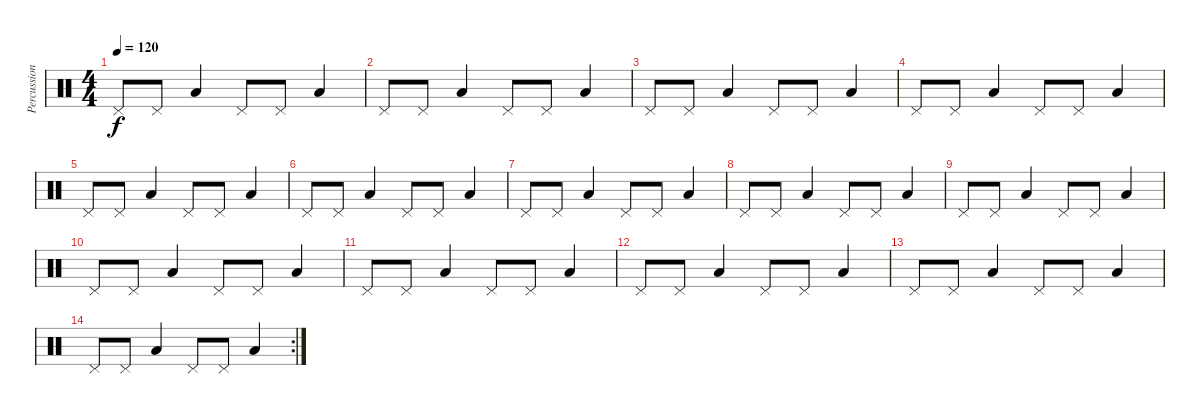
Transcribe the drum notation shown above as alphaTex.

\track ("Percussions" "Percussion") {instrument percussion}
\staff {score}
\articulation defaults
\ts (4 4)
\tempo 120
\clef neutral
\ks c "Pedal Hi-Hat (hit)".8{dy f} "Pedal Hi-Hat (hit)".8 "Low Tom (hit)".4 "Pedal Hi-Hat (hit)".8 "Pedal Hi-Hat (hit)".8 "Low Tom (hit)".4
|
"Pedal Hi-Hat (hit)".8 "Pedal Hi-Hat (hit)".8 "Low Tom (hit)".4 "Pedal Hi-Hat (hit)".8 "Pedal Hi-Hat (hit)".8 "Low Tom (hit)".4 |
"Pedal Hi-Hat (hit)".8 "Pedal Hi-Hat (hit)".8 "Low Tom (hit)".4 "Pedal Hi-Hat (hit)".8 "Pedal Hi-Hat (hit)".8 "Low Tom (hit)".4 |
"Pedal Hi-Hat (hit)".8 "Pedal Hi-Hat (hit)".8 "Low Tom (hit)".4 "Pedal Hi-Hat (hit)".8 "Pedal Hi-Hat (hit)".8 "Low Tom (hit)".4 |
"Pedal Hi-Hat (hit)".8 "Pedal Hi-Hat (hit)".8 "Low Tom (hit)".4 "Pedal Hi-Hat (hit)".8 "Pedal Hi-Hat (hit)".8 "Low Tom (hit)".4 |
"Pedal Hi-Hat (hit)".8 "Pedal Hi-Hat (hit)".8 "Low Tom (hit)".4 "Pedal Hi-Hat (hit)".8 "Pedal Hi-Hat (hit)".8 "Low Tom (hit)".4 |
"Pedal Hi-Hat (hit)".8 "Pedal Hi-Hat (hit)".8 "Low Tom (hit)".4 "Pedal Hi-Hat (hit)".8 "Pedal Hi-Hat (hit)".8 "Low Tom (hit)".4 |
"Pedal Hi-Hat (hit)".8 "Pedal Hi-Hat (hit)".8 "Low Tom (hit)".4 "Pedal Hi-Hat (hit)".8 "Pedal Hi-Hat (hit)".8 "Low Tom (hit)".4 |
"Pedal Hi-Hat (hit)".8 "Pedal Hi-Hat (hit)".8 "Low Tom (hit)".4 "Pedal Hi-Hat (hit)".8 "Pedal Hi-Hat (hit)".8 "Low Tom (hit)".4 |
"Pedal Hi-Hat (hit)".8 "Pedal Hi-Hat (hit)".8 "Low Tom (hit)".4 "Pedal Hi-Hat (hit)".8 "Pedal Hi-Hat (hit)".8 "Low Tom (hit)".4 |
"Pedal Hi-Hat (hit)".8 "Pedal Hi-Hat (hit)".8 "Low Tom (hit)".4 "Pedal Hi-Hat (hit)".8 "Pedal Hi-Hat (hit)".8 "Low Tom (hit)".4 |
"Pedal Hi-Hat (hit)".8 "Pedal Hi-Hat (hit)".8 "Low Tom (hit)".4 "Pedal Hi-Hat (hit)".8 "Pedal Hi-Hat (hit)".8 "Low Tom (hit)".4 |
"Pedal Hi-Hat (hit)".8 "Pedal Hi-Hat (hit)".8 "Low Tom (hit)".4 "Pedal Hi-Hat (hit)".8 "Pedal Hi-Hat (hit)".8 "Low Tom (hit)".4 |
\rc 2 "Pedal Hi-Hat (hit)".8 "Pedal Hi-Hat (hit)".8 "Low Tom (hit)".4 "Pedal Hi-Hat (hit)".8 "Pedal Hi-Hat (hit)".8 "Low Tom (hit)".4
